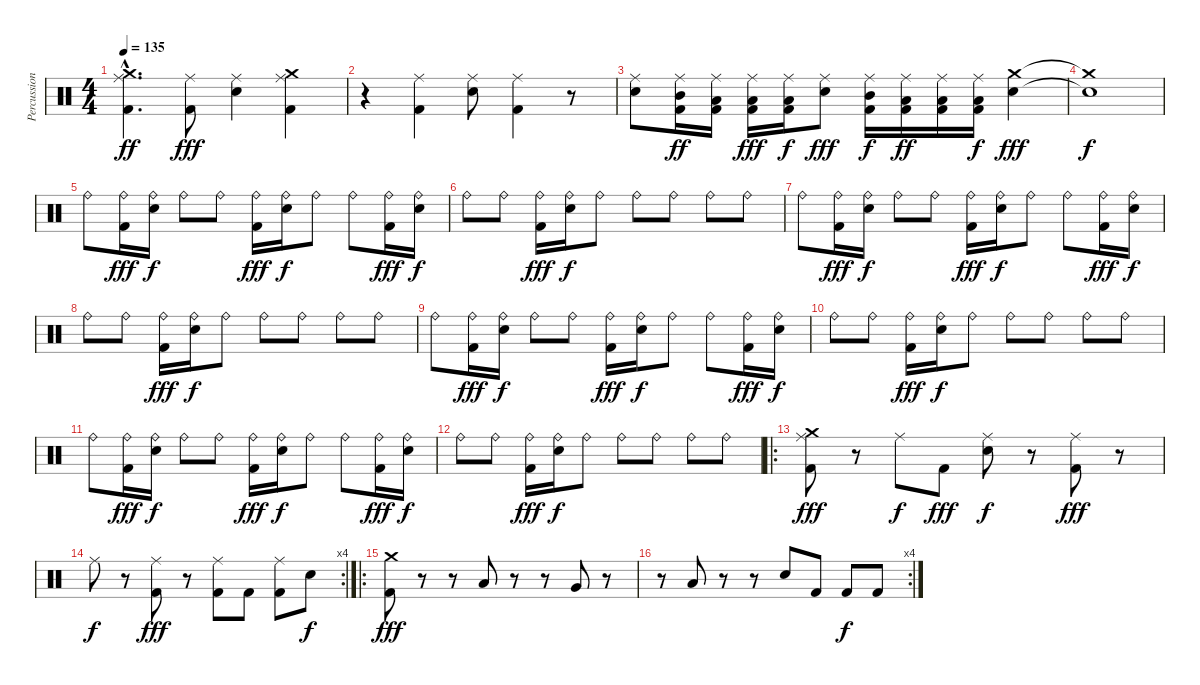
\track ("Percussioni" "Percussion") {instrument percussion}
\staff {score}
\articulation defaults
\ts (4 4)
\tempo 135
\clef neutral
\ks c
("Ride (middle)"{hac} "Kick (hit) 2"{hac} "Crash medium (hit)"{hac}).4{d dy ff} ("Ride (middle)" "Kick (hit) 2").8{dy fff} ("Ride (middle)" "Snare (hit) 2").4 ("Ride (middle)" "Kick (hit) 2" "Crash medium (hit)").4 |
r.4 ("Ride (middle)" "Kick (hit) 2").4 ("Ride (middle)" "Snare (hit) 2").8 ("Ride (middle)" "Kick (hit) 2").4 r.8 |
("Ride (middle)" "Snare (hit) 2").8 ("Ride (middle)" "Kick (hit) 2" "Mid Tom (hit)").16{dy ff} ("Ride (middle)" "Kick (hit) 2" "Low Tom (hit)").16 ("Ride (middle)" "Kick (hit) 2" "Low Tom (hit)").16{dy fff} ("Ride (middle)" "Kick (hit) 2" "Low Tom (hit)").16{dy f} ("Ride (middle)" "Snare (hit) 2").8{dy fff} ("Ride (middle)" "Kick (hit) 2" "Mid Tom (hit)").16{dy f} ("Ride (middle)" "Kick (hit) 2" "Low Tom (hit)").16{dy ff} ("Ride (middle)" "Kick (hit) 2" "Low Tom (hit)").16 ("Ride (middle)" "Kick (hit) 2" "Low Tom (hit)").16{dy f} ("Crash medium (hit)" "Snare (hit) 2").4{dy fff} |
("Crash medium (hit)"{t} "Snare (hit) 2"{t}).1{dy f} |
"Ride (bell)".8 ("Ride (bell)" "Kick (hit) 2").16{dy fff} ("Ride (bell)" "Snare (hit) 2").16{dy f} "Ride (bell)".8 "Ride (bell)".8 ("Ride (bell)" "Kick (hit) 2").16{dy fff} ("Ride (bell)" "Snare (hit) 2").16{dy f} "Ride (bell)".8 "Ride (bell)".8 ("Ride (bell)" "Kick (hit) 2").16{dy fff} ("Ride (bell)" "Snare (hit) 2").16{dy f} |
"Ride (bell)".8 "Ride (bell)".8 ("Ride (bell)" "Kick (hit) 2").16{dy fff} ("Ride (bell)" "Snare (hit) 2").16{dy f} "Ride (bell)".8 "Ride (bell)".8 "Ride (bell)".8 "Ride (bell)".8 "Ride (bell)".8 |
"Ride (bell)".8 ("Ride (bell)" "Kick (hit) 2").16{dy fff} ("Ride (bell)" "Snare (hit) 2").16{dy f} "Ride (bell)".8 "Ride (bell)".8 ("Ride (bell)" "Kick (hit) 2").16{dy fff} ("Ride (bell)" "Snare (hit) 2").16{dy f} "Ride (bell)".8 "Ride (bell)".8 ("Ride (bell)" "Kick (hit) 2").16{dy fff} ("Ride (bell)" "Snare (hit) 2").16{dy f} |
"Ride (bell)".8 "Ride (bell)".8 ("Ride (bell)" "Kick (hit) 2").16{dy fff} ("Ride (bell)" "Snare (hit) 2").16{dy f} "Ride (bell)".8 "Ride (bell)".8 "Ride (bell)".8 "Ride (bell)".8 "Ride (bell)".8 |
"Ride (bell)".8 ("Ride (bell)" "Kick (hit) 2").16{dy fff} ("Ride (bell)" "Snare (hit) 2").16{dy f} "Ride (bell)".8 "Ride (bell)".8 ("Ride (bell)" "Kick (hit) 2").16{dy fff} ("Ride (bell)" "Snare (hit) 2").16{dy f} "Ride (bell)".8 "Ride (bell)".8 ("Ride (bell)" "Kick (hit) 2").16{dy fff} ("Ride (bell)" "Snare (hit) 2").16{dy f} |
"Ride (bell)".8 "Ride (bell)".8 ("Ride (bell)" "Kick (hit) 2").16{dy fff} ("Ride (bell)" "Snare (hit) 2").16{dy f} "Ride (bell)".8 "Ride (bell)".8 "Ride (bell)".8 "Ride (bell)".8 "Ride (bell)".8 |
"Ride (bell)".8 ("Ride (bell)" "Kick (hit) 2").16{dy fff} ("Ride (bell)" "Snare (hit) 2").16{dy f} "Ride (bell)".8 "Ride (bell)".8 ("Ride (bell)" "Kick (hit) 2").16{dy fff} ("Ride (bell)" "Snare (hit) 2").16{dy f} "Ride (bell)".8 "Ride (bell)".8 ("Ride (bell)" "Kick (hit) 2").16{dy fff} ("Ride (bell)" "Snare (hit) 2").16{dy f} |
"Ride (bell)".8 "Ride (bell)".8 ("Ride (bell)" "Kick (hit) 2").16{dy fff} ("Ride (bell)" "Snare (hit) 2").16{dy f} "Ride (bell)".8 "Ride (bell)".8 "Ride (bell)".8 "Ride (bell)".8 "Ride (bell)".8 |
\ro
("Ride (middle)" "Crash medium (hit)" "Kick (hit) 2").8{dy fff} r.8 "Ride (middle)".8{dy f} "Kick (hit) 2".8{dy fff} ("Ride (middle)" "Snare (hit) 2").8{dy f} r.8 ("Ride (middle)" "Kick (hit) 2").8{dy fff} r.8 |
\rc 4 "Ride (middle)".8{dy f}
r.8 ("Ride (middle)" "Kick (hit) 2").8{dy fff} r.8 ("Ride (middle)" "Kick (hit) 2").8 "Kick (hit) 2".8 ("Ride (middle)" "Kick (hit) 2").8 "Snare (hit) 2".8{dy f} |
\ro
("Crash medium (hit)" "Kick (hit) 2").8{dy fff} r.8 r.8 "Low Floor Tom (hit)".8 r.8 r.8 "Very Low Tom (hit)".8 r.8 |
\rc 4
r.8 "Low Tom (hit)".8 r.8 r.8 "Snare (hit) 2".8 "Kick (hit) 2".8 "Kick (hit) 2".8{dy f} "Kick (hit) 2".8
